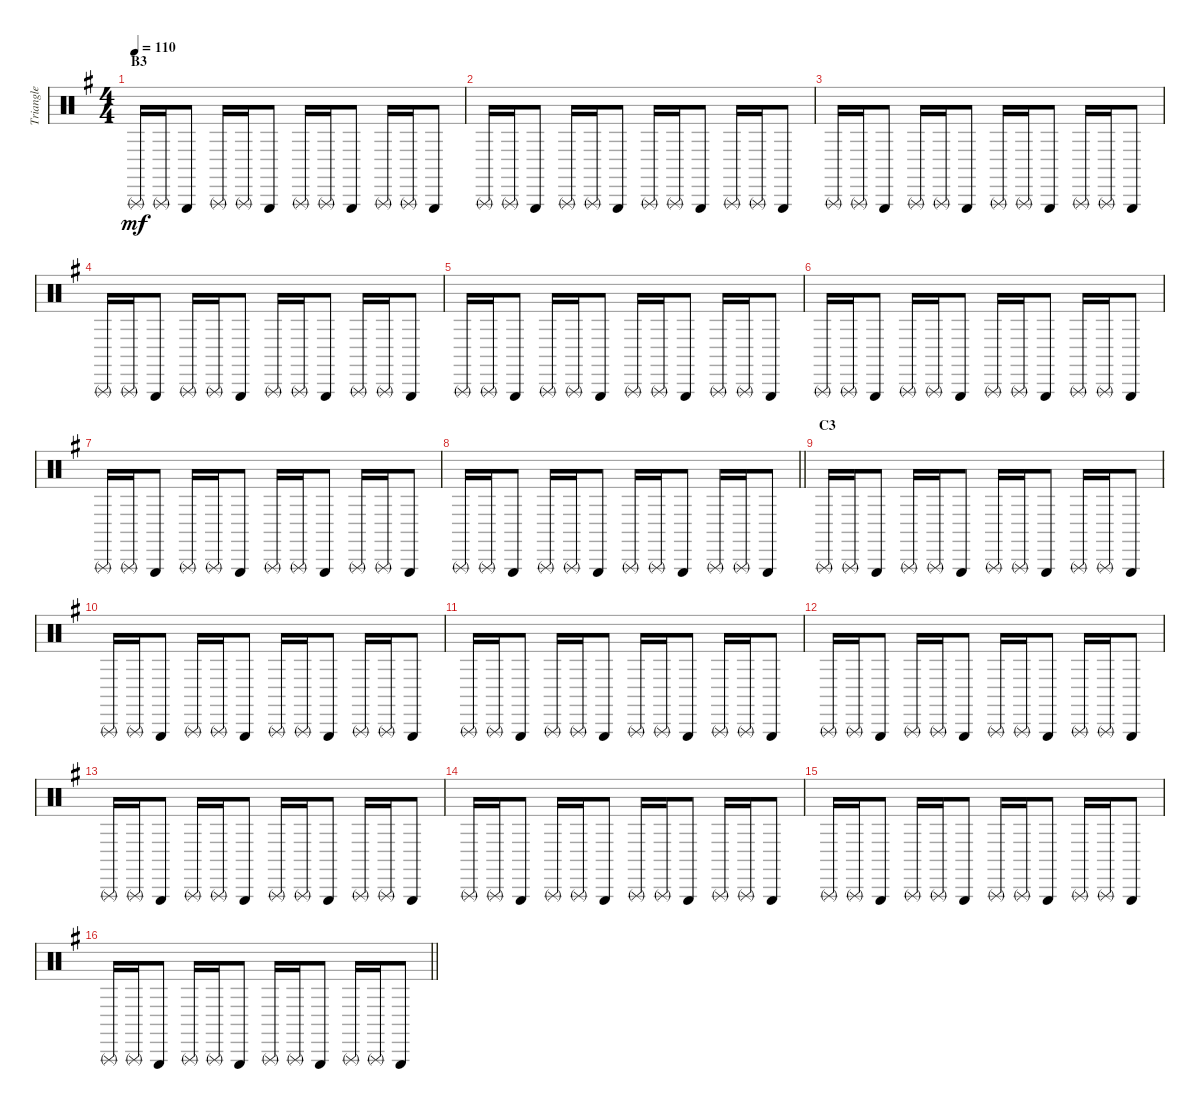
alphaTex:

\track ("Triangle" "Triangle") {instrument percussion}
\staff {score}
\articulation defaults
\ts (4 4)
\section ("" "B3")
\tempo 110
\clef neutral
\ks g "Triangle (rnute)".16{dy mf} "Triangle (rnute)".16 "Triangle (hit)".8 "Triangle (rnute)".16 "Triangle (rnute)".16 "Triangle (hit)".8 "Triangle (rnute)".16 "Triangle (rnute)".16 "Triangle (hit)".8 "Triangle (rnute)".16 "Triangle (rnute)".16 "Triangle (hit)".8
|
"Triangle (rnute)".16 "Triangle (rnute)".16 "Triangle (hit)".8 "Triangle (rnute)".16 "Triangle (rnute)".16 "Triangle (hit)".8 "Triangle (rnute)".16 "Triangle (rnute)".16 "Triangle (hit)".8 "Triangle (rnute)".16 "Triangle (rnute)".16 "Triangle (hit)".8 |
"Triangle (rnute)".16 "Triangle (rnute)".16 "Triangle (hit)".8 "Triangle (rnute)".16 "Triangle (rnute)".16 "Triangle (hit)".8 "Triangle (rnute)".16 "Triangle (rnute)".16 "Triangle (hit)".8 "Triangle (rnute)".16 "Triangle (rnute)".16 "Triangle (hit)".8 |
"Triangle (rnute)".16 "Triangle (rnute)".16 "Triangle (hit)".8 "Triangle (rnute)".16 "Triangle (rnute)".16 "Triangle (hit)".8 "Triangle (rnute)".16 "Triangle (rnute)".16 "Triangle (hit)".8 "Triangle (rnute)".16 "Triangle (rnute)".16 "Triangle (hit)".8 |
"Triangle (rnute)".16 "Triangle (rnute)".16 "Triangle (hit)".8 "Triangle (rnute)".16 "Triangle (rnute)".16 "Triangle (hit)".8 "Triangle (rnute)".16 "Triangle (rnute)".16 "Triangle (hit)".8 "Triangle (rnute)".16 "Triangle (rnute)".16 "Triangle (hit)".8 |
"Triangle (rnute)".16 "Triangle (rnute)".16 "Triangle (hit)".8 "Triangle (rnute)".16 "Triangle (rnute)".16 "Triangle (hit)".8 "Triangle (rnute)".16 "Triangle (rnute)".16 "Triangle (hit)".8 "Triangle (rnute)".16 "Triangle (rnute)".16 "Triangle (hit)".8 |
"Triangle (rnute)".16 "Triangle (rnute)".16 "Triangle (hit)".8 "Triangle (rnute)".16 "Triangle (rnute)".16 "Triangle (hit)".8 "Triangle (rnute)".16 "Triangle (rnute)".16 "Triangle (hit)".8 "Triangle (rnute)".16 "Triangle (rnute)".16 "Triangle (hit)".8 |
\barLineRight lightlight "Triangle (rnute)".16 "Triangle (rnute)".16 "Triangle (hit)".8 "Triangle (rnute)".16 "Triangle (rnute)".16 "Triangle (hit)".8 "Triangle (rnute)".16 "Triangle (rnute)".16 "Triangle (hit)".8 "Triangle (rnute)".16 "Triangle (rnute)".16 "Triangle (hit)".8
|
\section ("" "C3")
"Triangle (rnute)".16 "Triangle (rnute)".16 "Triangle (hit)".8 "Triangle (rnute)".16 "Triangle (rnute)".16 "Triangle (hit)".8 "Triangle (rnute)".16 "Triangle (rnute)".16 "Triangle (hit)".8 "Triangle (rnute)".16 "Triangle (rnute)".16 "Triangle (hit)".8 |
"Triangle (rnute)".16 "Triangle (rnute)".16 "Triangle (hit)".8 "Triangle (rnute)".16 "Triangle (rnute)".16 "Triangle (hit)".8 "Triangle (rnute)".16 "Triangle (rnute)".16 "Triangle (hit)".8 "Triangle (rnute)".16 "Triangle (rnute)".16 "Triangle (hit)".8 |
"Triangle (rnute)".16 "Triangle (rnute)".16 "Triangle (hit)".8 "Triangle (rnute)".16 "Triangle (rnute)".16 "Triangle (hit)".8 "Triangle (rnute)".16 "Triangle (rnute)".16 "Triangle (hit)".8 "Triangle (rnute)".16 "Triangle (rnute)".16 "Triangle (hit)".8 |
"Triangle (rnute)".16 "Triangle (rnute)".16 "Triangle (hit)".8 "Triangle (rnute)".16 "Triangle (rnute)".16 "Triangle (hit)".8 "Triangle (rnute)".16 "Triangle (rnute)".16 "Triangle (hit)".8 "Triangle (rnute)".16 "Triangle (rnute)".16 "Triangle (hit)".8 |
"Triangle (rnute)".16 "Triangle (rnute)".16 "Triangle (hit)".8 "Triangle (rnute)".16 "Triangle (rnute)".16 "Triangle (hit)".8 "Triangle (rnute)".16 "Triangle (rnute)".16 "Triangle (hit)".8 "Triangle (rnute)".16 "Triangle (rnute)".16 "Triangle (hit)".8 |
"Triangle (rnute)".16 "Triangle (rnute)".16 "Triangle (hit)".8 "Triangle (rnute)".16 "Triangle (rnute)".16 "Triangle (hit)".8 "Triangle (rnute)".16 "Triangle (rnute)".16 "Triangle (hit)".8 "Triangle (rnute)".16 "Triangle (rnute)".16 "Triangle (hit)".8 |
"Triangle (rnute)".16 "Triangle (rnute)".16 "Triangle (hit)".8 "Triangle (rnute)".16 "Triangle (rnute)".16 "Triangle (hit)".8 "Triangle (rnute)".16 "Triangle (rnute)".16 "Triangle (hit)".8 "Triangle (rnute)".16 "Triangle (rnute)".16 "Triangle (hit)".8 |
\barLineRight lightlight "Triangle (rnute)".16 "Triangle (rnute)".16 "Triangle (hit)".8 "Triangle (rnute)".16 "Triangle (rnute)".16 "Triangle (hit)".8 "Triangle (rnute)".16 "Triangle (rnute)".16 "Triangle (hit)".8 "Triangle (rnute)".16 "Triangle (rnute)".16 "Triangle (hit)".8
